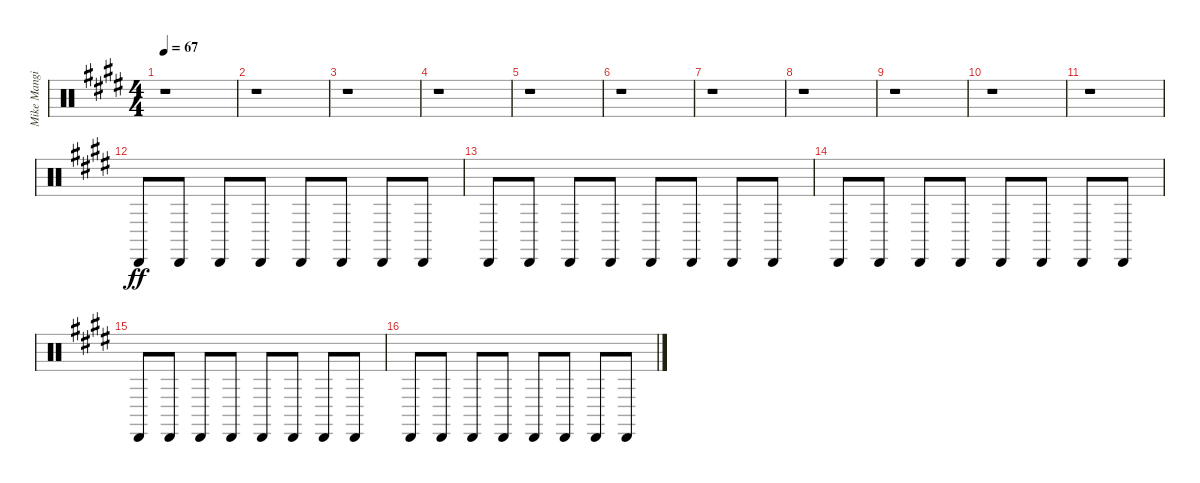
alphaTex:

\track ("Mike Mangini - Percussion" "Mike Mangi") {instrument percussion}
\staff {score}
\articulation defaults
\ts (4 4)
\tempo 67
\clef neutral
\ks e
r.1{dy ff} |
r.1 |
r.1 |
r.1 |
r.1 |
r.1 |
r.1 |
r.1 |
r.1 |
r.1 |
r.1 |
"Cabasa (hit)".8 "Cabasa (hit)".8 "Cabasa (hit)".8 "Cabasa (hit)".8 "Cabasa (hit)".8 "Cabasa (hit)".8 "Cabasa (hit)".8 "Cabasa (hit)".8 |
"Cabasa (hit)".8 "Cabasa (hit)".8 "Cabasa (hit)".8 "Cabasa (hit)".8 "Cabasa (hit)".8 "Cabasa (hit)".8 "Cabasa (hit)".8 "Cabasa (hit)".8 |
"Cabasa (hit)".8 "Cabasa (hit)".8 "Cabasa (hit)".8 "Cabasa (hit)".8 "Cabasa (hit)".8 "Cabasa (hit)".8 "Cabasa (hit)".8 "Cabasa (hit)".8 |
"Cabasa (hit)".8 "Cabasa (hit)".8 "Cabasa (hit)".8 "Cabasa (hit)".8 "Cabasa (hit)".8 "Cabasa (hit)".8 "Cabasa (hit)".8 "Cabasa (hit)".8 |
"Cabasa (hit)".8 "Cabasa (hit)".8 "Cabasa (hit)".8 "Cabasa (hit)".8 "Cabasa (hit)".8 "Cabasa (hit)".8 "Cabasa (hit)".8 "Cabasa (hit)".8
